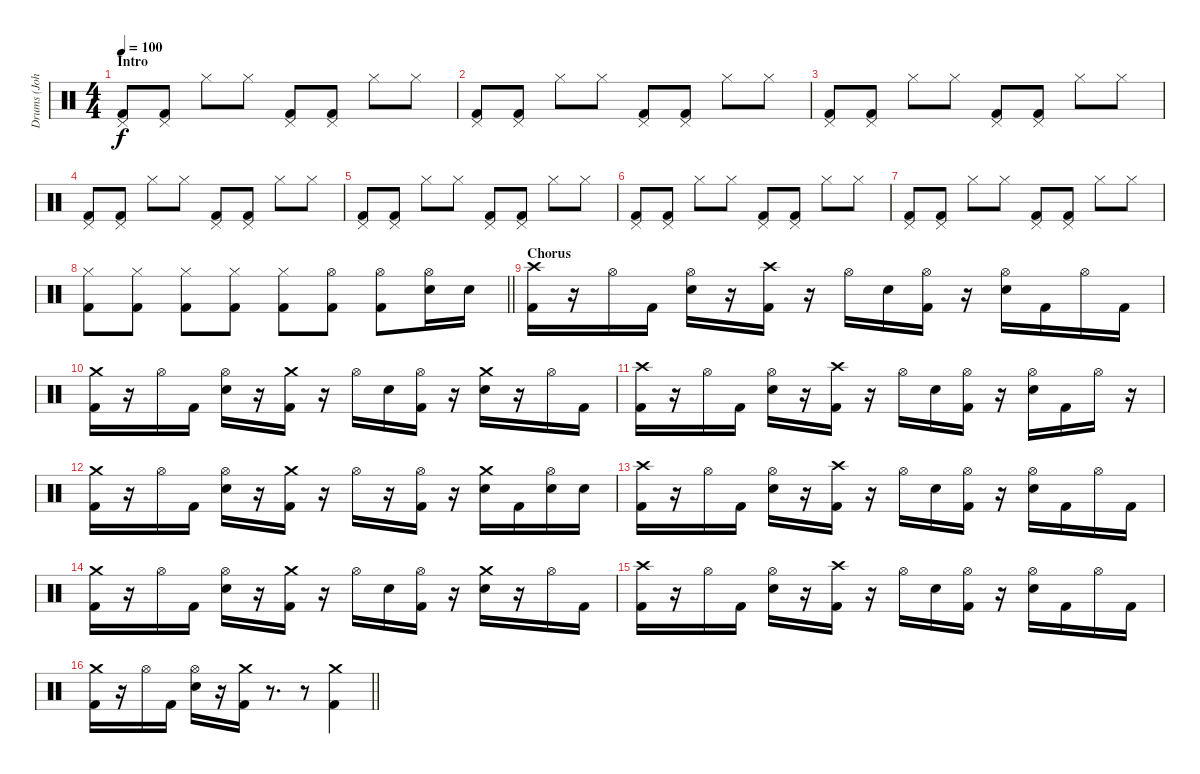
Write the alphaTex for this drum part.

\track ("Drums (John Otto)" "Drums (Joh") {instrument percussion}
\staff {score}
\articulation defaults
\ts (4 4)
\section ("" "Intro")
\tempo 100
\clef neutral
\ks c
("Pedal Hi-Hat (hit)" "Kick (hit) 2").8{dy f} ("Pedal Hi-Hat (hit)" "Kick (hit) 2").8 "Hi-Hat (closed)".8 "Hi-Hat (closed)".8 ("Pedal Hi-Hat (hit)" "Kick (hit) 2").8 ("Pedal Hi-Hat (hit)" "Kick (hit) 2").8 "Hi-Hat (closed)".8 "Hi-Hat (closed)".8 |
("Pedal Hi-Hat (hit)" "Kick (hit) 2").8 ("Pedal Hi-Hat (hit)" "Kick (hit) 2").8 "Hi-Hat (closed)".8 "Hi-Hat (closed)".8 ("Pedal Hi-Hat (hit)" "Kick (hit) 2").8 ("Pedal Hi-Hat (hit)" "Kick (hit) 2").8 "Hi-Hat (closed)".8 "Hi-Hat (closed)".8 |
("Pedal Hi-Hat (hit)" "Kick (hit) 2").8 ("Pedal Hi-Hat (hit)" "Kick (hit) 2").8 "Hi-Hat (closed)".8 "Hi-Hat (closed)".8 ("Pedal Hi-Hat (hit)" "Kick (hit) 2").8 ("Pedal Hi-Hat (hit)" "Kick (hit) 2").8 "Hi-Hat (closed)".8 "Hi-Hat (closed)".8 |
("Pedal Hi-Hat (hit)" "Kick (hit) 2").8 ("Pedal Hi-Hat (hit)" "Kick (hit) 2").8 "Hi-Hat (closed)".8 "Hi-Hat (closed)".8 ("Pedal Hi-Hat (hit)" "Kick (hit) 2").8 ("Pedal Hi-Hat (hit)" "Kick (hit) 2").8 "Hi-Hat (closed)".8 "Hi-Hat (closed)".8 |
("Pedal Hi-Hat (hit)" "Kick (hit) 2").8 ("Pedal Hi-Hat (hit)" "Kick (hit) 2").8 "Hi-Hat (closed)".8 "Hi-Hat (closed)".8 ("Pedal Hi-Hat (hit)" "Kick (hit) 2").8 ("Pedal Hi-Hat (hit)" "Kick (hit) 2").8 "Hi-Hat (closed)".8 "Hi-Hat (closed)".8 |
("Pedal Hi-Hat (hit)" "Kick (hit) 2").8 ("Pedal Hi-Hat (hit)" "Kick (hit) 2").8 "Hi-Hat (closed)".8 "Hi-Hat (closed)".8 ("Pedal Hi-Hat (hit)" "Kick (hit) 2").8 ("Pedal Hi-Hat (hit)" "Kick (hit) 2").8 "Hi-Hat (closed)".8 "Hi-Hat (closed)".8 |
("Pedal Hi-Hat (hit)" "Kick (hit) 2").8 ("Pedal Hi-Hat (hit)" "Kick (hit) 2").8 "Hi-Hat (closed)".8 "Hi-Hat (closed)".8 ("Pedal Hi-Hat (hit)" "Kick (hit) 2").8 ("Pedal Hi-Hat (hit)" "Kick (hit) 2").8 "Hi-Hat (closed)".8 "Hi-Hat (closed)".8 |
\barLineRight lightlight
("Hi-Hat (closed)" "Kick (hit) 2").8 ("Hi-Hat (closed)" "Kick (hit) 2").8 ("Hi-Hat (closed)" "Kick (hit) 2").8 ("Hi-Hat (closed)" "Kick (hit) 2").8 ("Hi-Hat (closed)" "Kick (hit) 2").8 ("Hi-Hat (open)" "Kick (hit) 2").8 ("Hi-Hat (open)" "Kick (hit) 2").8 ("Hi-Hat (open)" "Electric Snare (hit)").16 "Electric Snare (hit)".16 |
\section ("" "Chorus")
("Crash high (hit)" "Kick (hit) 2").16 r.16 "Hi-Hat (open)".16 "Kick (hit) 2".16 ("Hi-Hat (open)" "Electric Snare (hit)").16 r.16 ("Crash high (hit)" "Kick (hit) 2").16 r.16 "Hi-Hat (open)".16 "Electric Snare (hit)".16 ("Hi-Hat (open)" "Kick (hit) 2").16 r.16 ("Hi-Hat (open)" "Electric Snare (hit)").16 "Kick (hit) 2".16 "Hi-Hat (open)".16 "Kick (hit) 2".16 |
("Crash medium (hit)" "Kick (hit) 2").16 r.16 "Hi-Hat (open)".16 "Kick (hit) 2".16 ("Hi-Hat (open)" "Electric Snare (hit)").16 r.16 ("Crash medium (hit)" "Kick (hit) 2").16 r.16 "Hi-Hat (open)".16 "Electric Snare (hit)".16 ("Hi-Hat (open)" "Kick (hit) 2").16 r.16 ("Crash medium (hit)" "Electric Snare (hit)").16 r.16 "Hi-Hat (open)".16 "Kick (hit) 2".16 |
("Crash high (hit)" "Kick (hit) 2").16 r.16 "Hi-Hat (open)".16 "Kick (hit) 2".16 ("Hi-Hat (open)" "Electric Snare (hit)").16 r.16 ("Crash high (hit)" "Kick (hit) 2").16 r.16 "Hi-Hat (open)".16 "Electric Snare (hit)".16 ("Hi-Hat (open)" "Kick (hit) 2").16 r.16 ("Hi-Hat (open)" "Electric Snare (hit)").16 "Kick (hit) 2".16 "Hi-Hat (open)".16 r.16 |
("Crash medium (hit)" "Kick (hit) 2").16 r.16 "Hi-Hat (open)".16 "Kick (hit) 2".16 ("Hi-Hat (open)" "Electric Snare (hit)").16 r.16 ("Crash medium (hit)" "Kick (hit) 2").16 r.16 "Hi-Hat (open)".16 r.16 ("Hi-Hat (open)" "Kick (hit) 2").16 r.16 ("Crash medium (hit)" "Electric Snare (hit)").16 "Kick (hit) 2".16 ("Hi-Hat (open)" "Electric Snare (hit)").16 "Electric Snare (hit)".16 |
("Crash high (hit)" "Kick (hit) 2").16 r.16 "Hi-Hat (open)".16 "Kick (hit) 2".16 ("Hi-Hat (open)" "Electric Snare (hit)").16 r.16 ("Crash high (hit)" "Kick (hit) 2").16 r.16 "Hi-Hat (open)".16 "Electric Snare (hit)".16 ("Hi-Hat (open)" "Kick (hit) 2").16 r.16 ("Hi-Hat (open)" "Electric Snare (hit)").16 "Kick (hit) 2".16 "Hi-Hat (open)".16 "Kick (hit) 2".16 |
("Crash medium (hit)" "Kick (hit) 2").16 r.16 "Hi-Hat (open)".16 "Kick (hit) 2".16 ("Hi-Hat (open)" "Electric Snare (hit)").16 r.16 ("Crash medium (hit)" "Kick (hit) 2").16 r.16 "Hi-Hat (open)".16 "Electric Snare (hit)".16 ("Hi-Hat (open)" "Kick (hit) 2").16 r.16 ("Crash medium (hit)" "Electric Snare (hit)").16 r.16 "Hi-Hat (open)".16 "Kick (hit) 2".16 |
("Crash high (hit)" "Kick (hit) 2").16 r.16 "Hi-Hat (open)".16 "Kick (hit) 2".16 ("Hi-Hat (open)" "Electric Snare (hit)").16 r.16 ("Crash high (hit)" "Kick (hit) 2").16 r.16 "Hi-Hat (open)".16 "Electric Snare (hit)".16 ("Hi-Hat (open)" "Kick (hit) 2").16 r.16 ("Hi-Hat (open)" "Electric Snare (hit)").16 "Kick (hit) 2".16 "Hi-Hat (open)".16 "Kick (hit) 2".16 |
\barLineRight lightlight
("Crash medium (hit)" "Kick (hit) 2").16 r.16 "Hi-Hat (open)".16 "Kick (hit) 2".16 ("Hi-Hat (open)" "Electric Snare (hit)").16 r.16 ("Crash medium (hit)" "Kick (hit) 2").16 r.8{d} r.8 ("Crash medium (hit)" "Kick (hit) 2").4
